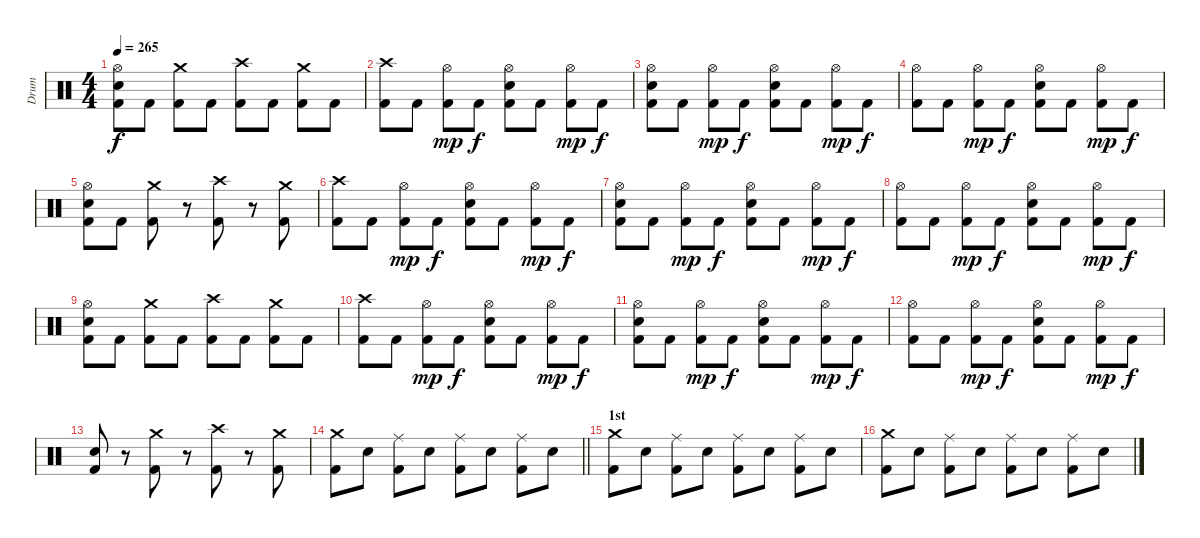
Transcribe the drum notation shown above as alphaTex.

\track ("Drum" "Drum") {instrument percussion}
\staff {score}
\articulation defaults
\ts (4 4)
\tempo 265
\clef neutral
\ks c
("Hi-Hat (open)" "Snare (hit) 2" "Kick (hit) 2").8{dy f} "Kick (hit) 2".8 ("Crash medium (hit)" "Kick (hit) 2").8 "Kick (hit) 2".8 ("Crash high (hit)" "Kick (hit) 2").8 "Kick (hit) 2".8 ("Crash medium (hit)" "Kick (hit) 2").8 "Kick (hit) 2".8 |
("Crash high (hit)" "Kick (hit) 2").8 "Kick (hit) 2".8 ("Hi-Hat (open)" "Kick (hit) 2").8{dy mp} "Kick (hit) 2".8{dy f} ("Snare (hit) 2" "Hi-Hat (open)" "Kick (hit) 2").8 "Kick (hit) 2".8 ("Hi-Hat (open)" "Kick (hit) 2").8{dy mp} "Kick (hit) 2".8{dy f} |
("Hi-Hat (open)" "Snare (hit) 2" "Kick (hit) 2").8 "Kick (hit) 2".8 ("Hi-Hat (open)" "Kick (hit) 2").8{dy mp} "Kick (hit) 2".8{dy f} ("Snare (hit) 2" "Hi-Hat (open)" "Kick (hit) 2").8 "Kick (hit) 2".8 ("Hi-Hat (open)" "Kick (hit) 2").8{dy mp} "Kick (hit) 2".8{dy f} |
("Hi-Hat (open)" "Kick (hit) 2").8 "Kick (hit) 2".8 ("Hi-Hat (open)" "Kick (hit) 2").8{dy mp} "Kick (hit) 2".8{dy f} ("Snare (hit) 2" "Hi-Hat (open)" "Kick (hit) 2").8 "Kick (hit) 2".8 ("Hi-Hat (open)" "Kick (hit) 2").8{dy mp} "Kick (hit) 2".8{dy f} |
("Hi-Hat (open)" "Snare (hit) 2" "Kick (hit) 2").8 "Kick (hit) 2".8 ("Crash medium (hit)" "Kick (hit) 2").8 r.8 ("Crash high (hit)" "Kick (hit) 2").8 r.8 ("Crash medium (hit)" "Kick (hit) 2").8 |
("Crash high (hit)" "Kick (hit) 2").8 "Kick (hit) 2".8 ("Hi-Hat (open)" "Kick (hit) 2").8{dy mp} "Kick (hit) 2".8{dy f} ("Snare (hit) 2" "Hi-Hat (open)" "Kick (hit) 2").8 "Kick (hit) 2".8 ("Hi-Hat (open)" "Kick (hit) 2").8{dy mp} "Kick (hit) 2".8{dy f} |
("Hi-Hat (open)" "Snare (hit) 2" "Kick (hit) 2").8 "Kick (hit) 2".8 ("Hi-Hat (open)" "Kick (hit) 2").8{dy mp} "Kick (hit) 2".8{dy f} ("Snare (hit) 2" "Hi-Hat (open)" "Kick (hit) 2").8 "Kick (hit) 2".8 ("Hi-Hat (open)" "Kick (hit) 2").8{dy mp} "Kick (hit) 2".8{dy f} |
("Hi-Hat (open)" "Kick (hit) 2").8 "Kick (hit) 2".8 ("Hi-Hat (open)" "Kick (hit) 2").8{dy mp} "Kick (hit) 2".8{dy f} ("Snare (hit) 2" "Hi-Hat (open)" "Kick (hit) 2").8 "Kick (hit) 2".8 ("Hi-Hat (open)" "Kick (hit) 2").8{dy mp} "Kick (hit) 2".8{dy f} |
("Hi-Hat (open)" "Snare (hit) 2" "Kick (hit) 2").8 "Kick (hit) 2".8 ("Crash medium (hit)" "Kick (hit) 2").8 "Kick (hit) 2".8 ("Crash high (hit)" "Kick (hit) 2").8 "Kick (hit) 2".8 ("Crash medium (hit)" "Kick (hit) 2").8 "Kick (hit) 2".8 |
("Crash high (hit)" "Kick (hit) 2").8 "Kick (hit) 2".8 ("Hi-Hat (open)" "Kick (hit) 2").8{dy mp} "Kick (hit) 2".8{dy f} ("Snare (hit) 2" "Hi-Hat (open)" "Kick (hit) 2").8 "Kick (hit) 2".8 ("Hi-Hat (open)" "Kick (hit) 2").8{dy mp} "Kick (hit) 2".8{dy f} |
("Hi-Hat (open)" "Snare (hit) 2" "Kick (hit) 2").8 "Kick (hit) 2".8 ("Hi-Hat (open)" "Kick (hit) 2").8{dy mp} "Kick (hit) 2".8{dy f} ("Snare (hit) 2" "Hi-Hat (open)" "Kick (hit) 2").8 "Kick (hit) 2".8 ("Hi-Hat (open)" "Kick (hit) 2").8{dy mp} "Kick (hit) 2".8{dy f} |
("Hi-Hat (open)" "Kick (hit) 2").8 "Kick (hit) 2".8 ("Hi-Hat (open)" "Kick (hit) 2").8{dy mp} "Kick (hit) 2".8{dy f} ("Snare (hit) 2" "Hi-Hat (open)" "Kick (hit) 2").8 "Kick (hit) 2".8 ("Hi-Hat (open)" "Kick (hit) 2").8{dy mp} "Kick (hit) 2".8{dy f} |
("Snare (hit) 2" "Kick (hit) 2").8 r.8 ("Crash medium (hit)" "Kick (hit) 2").8 r.8 ("Crash high (hit)" "Kick (hit) 2").8 r.8 ("Crash medium (hit)" "Kick (hit) 2").8 |
\barLineRight lightlight
("Crash medium (hit)" "Kick (hit) 2").8 "Snare (hit) 2".8 ("Ride (middle)" "Kick (hit) 2").8 "Snare (hit) 2".8 ("Ride (middle)" "Kick (hit) 2").8 "Snare (hit) 2".8 ("Ride (middle)" "Kick (hit) 2").8 "Snare (hit) 2".8 |
\section ("" "1st")
("Crash medium (hit)" "Kick (hit) 2").8 "Snare (hit) 2".8 ("Ride (middle)" "Kick (hit) 2").8 "Snare (hit) 2".8 ("Ride (middle)" "Kick (hit) 2").8 "Snare (hit) 2".8 ("Ride (middle)" "Kick (hit) 2").8 "Snare (hit) 2".8 |
("Crash medium (hit)" "Kick (hit) 2").8 "Snare (hit) 2".8 ("Ride (middle)" "Kick (hit) 2").8 "Snare (hit) 2".8 ("Ride (middle)" "Kick (hit) 2").8 "Snare (hit) 2".8 ("Ride (middle)" "Kick (hit) 2").8 "Snare (hit) 2".8
